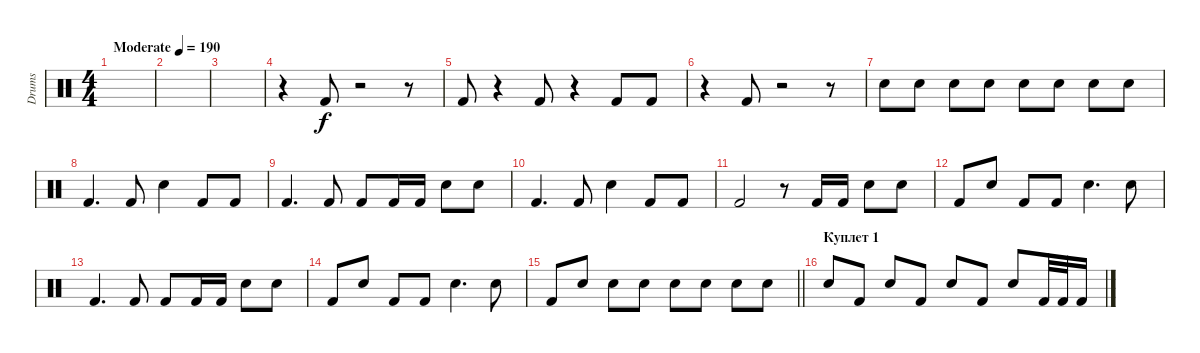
\track ("Drums" "Drums") {instrument percussion}
\staff {score}
\articulation defaults
\ts (4 4)
\tempo (190 "Moderate")
\clef neutral
\ks c
|
|
|
r.4 "Kick (hit) 2".8 r.2 r.8 |
"Kick (hit) 2".8 r.4 "Kick (hit) 2".8 r.4 "Kick (hit) 2".8 "Kick (hit) 2".8 |
r.4 "Kick (hit) 2".8 r.2 r.8 |
"Snare (hit) 2".8 "Snare (hit) 2".8 "Snare (hit) 2".8 "Snare (hit) 2".8 "Snare (hit) 2".8 "Snare (hit) 2".8 "Snare (hit) 2".8 "Snare (hit) 2".8 |
"Kick (hit) 2".4{d} "Kick (hit) 2".8 "Snare (hit) 2".4 "Kick (hit) 2".8 "Kick (hit) 2".8 |
"Kick (hit) 2".4{d} "Kick (hit) 2".8 "Kick (hit) 2".8 "Kick (hit) 2".16 "Kick (hit) 2".16 "Snare (hit) 2".8 "Snare (hit) 2".8 |
"Kick (hit) 2".4{d} "Kick (hit) 2".8 "Snare (hit) 2".4 "Kick (hit) 2".8 "Kick (hit) 2".8 |
"Kick (hit) 2".2 r.8 "Kick (hit) 2".16 "Kick (hit) 2".16 "Snare (hit) 2".8 "Snare (hit) 2".8 |
"Kick (hit) 2".8 "Snare (hit) 2".8 "Kick (hit) 2".8 "Kick (hit) 2".8 "Snare (hit) 2".4{d} "Snare (hit) 2".8 |
"Kick (hit) 2".4{d} "Kick (hit) 2".8 "Kick (hit) 2".8 "Kick (hit) 2".16 "Kick (hit) 2".16 "Snare (hit) 2".8 "Snare (hit) 2".8 |
"Kick (hit) 2".8 "Snare (hit) 2".8 "Kick (hit) 2".8 "Kick (hit) 2".8 "Snare (hit) 2".4{d} "Snare (hit) 2".8 |
\barLineRight lightlight "Kick (hit) 2".8 "Snare (hit) 2".8 "Snare (hit) 2".8 "Snare (hit) 2".8 "Snare (hit) 2".8 "Snare (hit) 2".8 "Snare (hit) 2".8 "Snare (hit) 2".8
|
\section ("" "Куплет 1")
"Snare (hit) 2".8 "Kick (hit) 2".8 "Snare (hit) 2".8 "Kick (hit) 2".8 "Snare (hit) 2".8 "Kick (hit) 2".8 "Snare (hit) 2".8 "Kick (hit) 2".32 "Kick (hit) 2".32 "Kick (hit) 2".16
